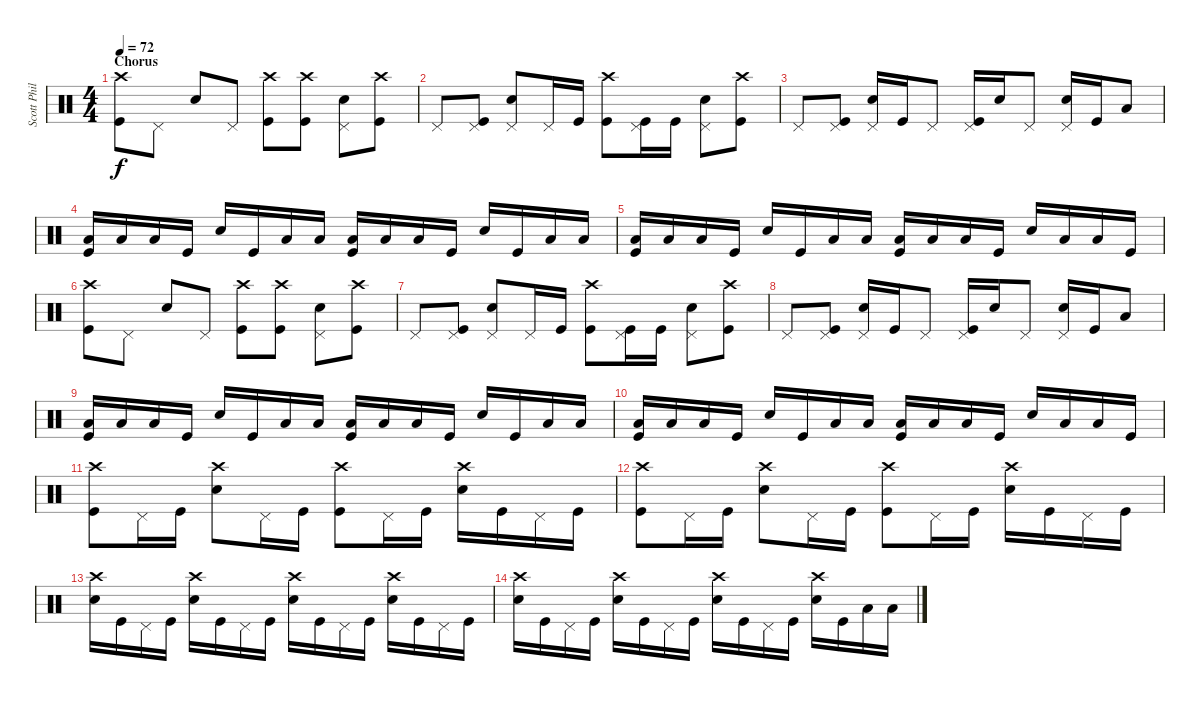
\track ("Scott Phillips" "Scott Phil") {instrument percussion}
\staff {score}
\articulation defaults
\ts (4 4)
\section ("" "Chorus")
\tempo 72
\clef neutral
\ks c
("Crash high (hit)" "Kick (hit)").8{dy f} "Pedal Hi-Hat (hit)".8 "Snare (hit) 2".8 "Pedal Hi-Hat (hit)".8 ("Crash high (hit)" "Kick (hit)").8 ("Crash high (hit)" "Kick (hit)").8 ("Pedal Hi-Hat (hit)" "Snare (hit) 2").8 ("Crash high (hit)" "Kick (hit)").8 |
"Pedal Hi-Hat (hit)".8 ("Pedal Hi-Hat (hit)" "Kick (hit)").8 ("Pedal Hi-Hat (hit)" "Snare (hit) 2").8 "Pedal Hi-Hat (hit)".16 "Kick (hit)".16 ("Crash high (hit)" "Kick (hit)").8 ("Pedal Hi-Hat (hit)" "Kick (hit)").16 "Kick (hit)".16 ("Pedal Hi-Hat (hit)" "Snare (hit) 2").8 ("Crash high (hit)" "Kick (hit)").8 |
"Pedal Hi-Hat (hit)".8 ("Pedal Hi-Hat (hit)" "Kick (hit)").8 ("Pedal Hi-Hat (hit)" "Snare (hit) 2").16 "Kick (hit)".16 "Pedal Hi-Hat (hit)".8 ("Pedal Hi-Hat (hit)" "Kick (hit)").16 "Snare (hit) 2".16 "Pedal Hi-Hat (hit)".8 ("Pedal Hi-Hat (hit)" "Snare (hit) 2").16 "Kick (hit)".16 "Low Tom (hit)".8 |
("Low Tom (hit)" "Kick (hit)").16 "Low Tom (hit)".16 "Low Tom (hit)".16 "Kick (hit)".16 "Snare (hit) 2".16 "Kick (hit)".16 "Low Tom (hit)".16 "Low Tom (hit)".16 ("Low Tom (hit)" "Kick (hit)").16 "Low Tom (hit)".16 "Low Tom (hit)".16 "Kick (hit)".16 "Snare (hit) 2".16 "Kick (hit)".16 "Low Tom (hit)".16 "Low Tom (hit)".16 |
("Low Tom (hit)" "Kick (hit)").16 "Low Tom (hit)".16 "Low Tom (hit)".16 "Kick (hit)".16 "Snare (hit) 2".16 "Kick (hit)".16 "Low Tom (hit)".16 "Low Tom (hit)".16 ("Low Tom (hit)" "Kick (hit)").16 "Low Tom (hit)".16 "Low Tom (hit)".16 "Kick (hit)".16 "Snare (hit) 2".16 "Low Tom (hit)".16 "Low Tom (hit)".16 "Kick (hit)".16 |
("Crash high (hit)" "Kick (hit)").8 "Pedal Hi-Hat (hit)".8 "Snare (hit) 2".8 "Pedal Hi-Hat (hit)".8 ("Crash high (hit)" "Kick (hit)").8 ("Crash high (hit)" "Kick (hit)").8 ("Pedal Hi-Hat (hit)" "Snare (hit) 2").8 ("Crash high (hit)" "Kick (hit)").8 |
"Pedal Hi-Hat (hit)".8 ("Pedal Hi-Hat (hit)" "Kick (hit)").8 ("Pedal Hi-Hat (hit)" "Snare (hit) 2").8 "Pedal Hi-Hat (hit)".16 "Kick (hit)".16 ("Crash high (hit)" "Kick (hit)").8 ("Pedal Hi-Hat (hit)" "Kick (hit)").16 "Kick (hit)".16 ("Pedal Hi-Hat (hit)" "Snare (hit) 2").8 ("Crash high (hit)" "Kick (hit)").8 |
"Pedal Hi-Hat (hit)".8 ("Pedal Hi-Hat (hit)" "Kick (hit)").8 ("Pedal Hi-Hat (hit)" "Snare (hit) 2").16 "Kick (hit)".16 "Pedal Hi-Hat (hit)".8 ("Pedal Hi-Hat (hit)" "Kick (hit)").16 "Snare (hit) 2".16 "Pedal Hi-Hat (hit)".8 ("Pedal Hi-Hat (hit)" "Snare (hit) 2").16 "Kick (hit)".16 "Low Tom (hit)".8 |
("Low Tom (hit)" "Kick (hit)").16 "Low Tom (hit)".16 "Low Tom (hit)".16 "Kick (hit)".16 "Snare (hit) 2".16 "Kick (hit)".16 "Low Tom (hit)".16 "Low Tom (hit)".16 ("Low Tom (hit)" "Kick (hit)").16 "Low Tom (hit)".16 "Low Tom (hit)".16 "Kick (hit)".16 "Snare (hit) 2".16 "Kick (hit)".16 "Low Tom (hit)".16 "Low Tom (hit)".16 |
("Low Tom (hit)" "Kick (hit)").16 "Low Tom (hit)".16 "Low Tom (hit)".16 "Kick (hit)".16 "Snare (hit) 2".16 "Kick (hit)".16 "Low Tom (hit)".16 "Low Tom (hit)".16 ("Low Tom (hit)" "Kick (hit)").16 "Low Tom (hit)".16 "Low Tom (hit)".16 "Kick (hit)".16 "Snare (hit) 2".16 "Low Tom (hit)".16 "Low Tom (hit)".16 "Kick (hit)".16 |
("Crash high (hit)" "Kick (hit)").8 "Pedal Hi-Hat (hit)".16 "Kick (hit)".16 ("Crash high (hit)" "Snare (hit) 2").8 "Pedal Hi-Hat (hit)".16 "Kick (hit)".16 ("Crash high (hit)" "Kick (hit)").8 "Pedal Hi-Hat (hit)".16 "Kick (hit)".16 ("Crash high (hit)" "Snare (hit) 2").16 "Kick (hit)".16 "Pedal Hi-Hat (hit)".16 "Kick (hit)".16 |
("Crash high (hit)" "Kick (hit)").8 "Pedal Hi-Hat (hit)".16 "Kick (hit)".16 ("Crash high (hit)" "Snare (hit) 2").8 "Pedal Hi-Hat (hit)".16 "Kick (hit)".16 ("Crash high (hit)" "Kick (hit)").8 "Pedal Hi-Hat (hit)".16 "Kick (hit)".16 ("Crash high (hit)" "Snare (hit) 2").16 "Kick (hit)".16 "Pedal Hi-Hat (hit)".16 "Kick (hit)".16 |
("Crash high (hit)" "Snare (hit) 2").16 "Kick (hit)".16 "Pedal Hi-Hat (hit)".16 "Kick (hit)".16 ("Crash high (hit)" "Snare (hit) 2").16 "Kick (hit)".16 "Pedal Hi-Hat (hit)".16 "Kick (hit)".16 ("Crash high (hit)" "Snare (hit) 2").16 "Kick (hit)".16 "Pedal Hi-Hat (hit)".16 "Kick (hit)".16 ("Crash high (hit)" "Snare (hit) 2").16 "Kick (hit)".16 "Pedal Hi-Hat (hit)".16 "Kick (hit)".16 |
("Crash high (hit)" "Snare (hit) 2").16 "Kick (hit)".16 "Pedal Hi-Hat (hit)".16 "Kick (hit)".16 ("Crash high (hit)" "Snare (hit) 2").16 "Kick (hit)".16 "Pedal Hi-Hat (hit)".16 "Kick (hit)".16 ("Crash high (hit)" "Snare (hit) 2").16 "Kick (hit)".16 "Pedal Hi-Hat (hit)".16 "Kick (hit)".16 ("Crash high (hit)" "Snare (hit) 2").16 "Kick (hit)".16 "Low Tom (hit)".16 "Low Tom (hit)".16
